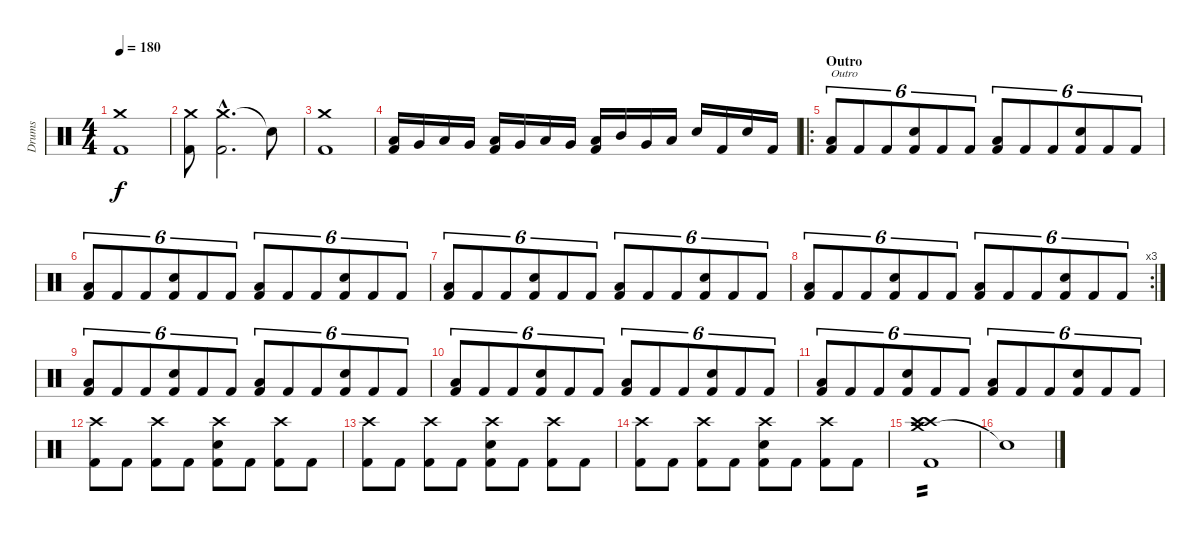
\track ("Drums" "Drums") {instrument percussion}
\staff {score}
\articulation defaults
\ts (4 4)
\tempo 180
\clef neutral
\ks c
("Crash medium (hit)" "Kick (hit) 2").1{dy f} |
("Crash medium (hit)" "Kick (hit) 2").8 ("Crash medium (hit)"{hac} "Kick (hit) 2"{hac}).2{d} "Snare (hit)"{t}.8 |
("Crash medium (hit)" "Kick (hit) 2").1 |
("Low Tom (hit)" "Kick (hit) 2").16 "Very Low Tom (hit)".16 "Low Tom (hit)".16 "Very Low Tom (hit)".16 ("Low Tom (hit)" "Kick (hit) 2").16 "Very Low Tom (hit)".16 "Low Tom (hit)".16 "Very Low Tom (hit)".16 ("Low Tom (hit)" "Kick (hit) 2").16 "Mid Tom (hit)".16 "Very Low Tom (hit)".16 "Low Tom (hit)".16 "Snare (hit) 2".16 "Kick (hit) 2".16 "Snare (hit) 2".16 "Kick (hit) 2".16 |
\ro
\section ("" "Outro")
("Low Tom (hit)" "Kick (hit) 2").8{tu (6 4) txt "Outro"} "Kick (hit) 2".8{tu (6 4)} "Kick (hit) 2".8{tu (6 4)} ("Snare (hit) 2" "Kick (hit) 2").8{tu (6 4)} "Kick (hit) 2".8{tu (6 4)} "Kick (hit) 2".8{tu (6 4)} ("Low Tom (hit)" "Kick (hit) 2").8{tu (6 4)} "Kick (hit) 2".8{tu (6 4)} "Kick (hit) 2".8{tu (6 4)} ("Snare (hit) 2" "Kick (hit) 2").8{tu (6 4)} "Kick (hit) 2".8{tu (6 4)} "Kick (hit) 2".8{tu (6 4)} |
("Low Tom (hit)" "Kick (hit) 2").8{tu (6 4)} "Kick (hit) 2".8{tu (6 4)} "Kick (hit) 2".8{tu (6 4)} ("Snare (hit) 2" "Kick (hit) 2").8{tu (6 4)} "Kick (hit) 2".8{tu (6 4)} "Kick (hit) 2".8{tu (6 4)} ("Low Tom (hit)" "Kick (hit) 2").8{tu (6 4)} "Kick (hit) 2".8{tu (6 4)} "Kick (hit) 2".8{tu (6 4)} ("Snare (hit) 2" "Kick (hit) 2").8{tu (6 4)} "Kick (hit) 2".8{tu (6 4)} "Kick (hit) 2".8{tu (6 4)} |
("Low Tom (hit)" "Kick (hit) 2").8{tu (6 4)} "Kick (hit) 2".8{tu (6 4)} "Kick (hit) 2".8{tu (6 4)} ("Snare (hit) 2" "Kick (hit) 2").8{tu (6 4)} "Kick (hit) 2".8{tu (6 4)} "Kick (hit) 2".8{tu (6 4)} ("Low Tom (hit)" "Kick (hit) 2").8{tu (6 4)} "Kick (hit) 2".8{tu (6 4)} "Kick (hit) 2".8{tu (6 4)} ("Snare (hit) 2" "Kick (hit) 2").8{tu (6 4)} "Kick (hit) 2".8{tu (6 4)} "Kick (hit) 2".8{tu (6 4)} |
\rc 3
("Low Tom (hit)" "Kick (hit) 2").8{tu (6 4)} "Kick (hit) 2".8{tu (6 4)} "Kick (hit) 2".8{tu (6 4)} ("Snare (hit) 2" "Kick (hit) 2").8{tu (6 4)} "Kick (hit) 2".8{tu (6 4)} "Kick (hit) 2".8{tu (6 4)} ("Low Tom (hit)" "Kick (hit) 2").8{tu (6 4)} "Kick (hit) 2".8{tu (6 4)} "Kick (hit) 2".8{tu (6 4)} ("Snare (hit) 2" "Kick (hit) 2").8{tu (6 4)} "Kick (hit) 2".8{tu (6 4)} "Kick (hit) 2".8{tu (6 4)} |
("Low Tom (hit)" "Kick (hit) 2").8{tu (6 4)} "Kick (hit) 2".8{tu (6 4)} "Kick (hit) 2".8{tu (6 4)} ("Snare (hit) 2" "Kick (hit) 2").8{tu (6 4)} "Kick (hit) 2".8{tu (6 4)} "Kick (hit) 2".8{tu (6 4)} ("Low Tom (hit)" "Kick (hit) 2").8{tu (6 4)} "Kick (hit) 2".8{tu (6 4)} "Kick (hit) 2".8{tu (6 4)} ("Snare (hit) 2" "Kick (hit) 2").8{tu (6 4)} "Kick (hit) 2".8{tu (6 4)} "Kick (hit) 2".8{tu (6 4)} |
("Low Tom (hit)" "Kick (hit) 2").8{tu (6 4)} "Kick (hit) 2".8{tu (6 4)} "Kick (hit) 2".8{tu (6 4)} ("Snare (hit) 2" "Kick (hit) 2").8{tu (6 4)} "Kick (hit) 2".8{tu (6 4)} "Kick (hit) 2".8{tu (6 4)} ("Low Tom (hit)" "Kick (hit) 2").8{tu (6 4)} "Kick (hit) 2".8{tu (6 4)} "Kick (hit) 2".8{tu (6 4)} ("Snare (hit) 2" "Kick (hit) 2").8{tu (6 4)} "Kick (hit) 2".8{tu (6 4)} "Kick (hit) 2".8{tu (6 4)} |
("Low Tom (hit)" "Kick (hit) 2").8{tu (6 4)} "Kick (hit) 2".8{tu (6 4)} "Kick (hit) 2".8{tu (6 4)} ("Snare (hit) 2" "Kick (hit) 2").8{tu (6 4)} "Kick (hit) 2".8{tu (6 4)} "Kick (hit) 2".8{tu (6 4)} ("Low Tom (hit)" "Kick (hit) 2").8{tu (6 4)} "Kick (hit) 2".8{tu (6 4)} "Kick (hit) 2".8{tu (6 4)} ("Snare (hit) 2" "Kick (hit) 2").8{tu (6 4)} "Kick (hit) 2".8{tu (6 4)} "Kick (hit) 2".8{tu (6 4)} |
("Crash high (hit)" "Kick (hit) 2").8 "Kick (hit) 2".8 ("Crash high (hit)" "Kick (hit) 2").8 "Kick (hit) 2".8 ("Crash high (hit)" "Snare (hit) 2" "Kick (hit) 2").8 "Kick (hit) 2".8 ("Crash high (hit)" "Kick (hit) 2").8 "Kick (hit) 2".8 |
("Crash high (hit)" "Kick (hit) 2").8 "Kick (hit) 2".8 ("Crash high (hit)" "Kick (hit) 2").8 "Kick (hit) 2".8 ("Crash high (hit)" "Snare (hit) 2" "Kick (hit) 2").8 "Kick (hit) 2".8 ("Crash high (hit)" "Kick (hit) 2").8 "Kick (hit) 2".8 |
("Crash high (hit)" "Kick (hit) 2").8 "Kick (hit) 2".8 ("Crash high (hit)" "Kick (hit) 2").8 "Kick (hit) 2".8 ("Crash high (hit)" "Snare (hit) 2" "Kick (hit) 2").8 "Kick (hit) 2".8 ("Crash high (hit)" "Kick (hit) 2").8 "Kick (hit) 2".8 |
("Crash medium (hit)" "Crash high (hit)" "Crash high (hit)" "Kick (hit) 2").1{tp 2} |
"Snare (hit)"{t}.1
